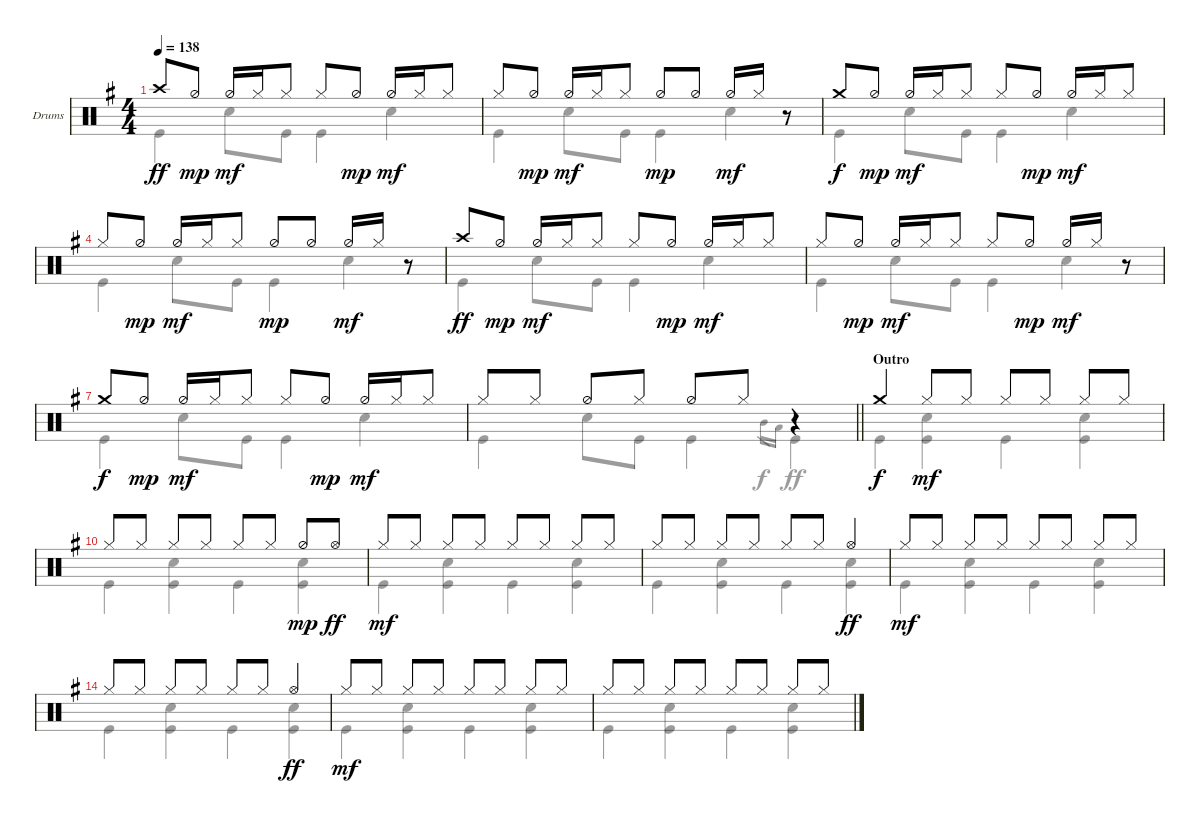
\defaultSystemsLayout 4
\bracketExtendMode groupsimilarinstruments
\useSystemSignSeparator
\multiBarRest
\multiTrackTrackNamePolicy allsystems
\firstSystemTrackNameMode fullname
\firstSystemTrackNameOrientation horizontal
\otherSystemsTrackNameOrientation horizontal
\defaultBarNumberDisplay FirstOfSystem
\track ("Drums" "Dr.") {multiBarRest instrument percussion}
\staff {score}
\articulation defaults
\voice
\ts (4 4)
\tempo 138
\clef neutral
\ks g "Crash high (hit)".8{dy ff} "Hi-Hat (half)".8{dy mp} "Hi-Hat (half)".16{dy mf} "Hi-Hat (closed)".16 "Hi-Hat (closed)".8 "Hi-Hat (closed)".8 "Hi-Hat (half)".8{dy mp} "Hi-Hat (half)".16{dy mf} "Hi-Hat (closed)".16 "Hi-Hat (closed)".8
|
"Hi-Hat (closed)".8 "Hi-Hat (half)".8{dy mp} "Hi-Hat (half)".16{dy mf} "Hi-Hat (closed)".16 "Hi-Hat (closed)".8 "Hi-Hat (half)".8{dy mp} "Hi-Hat (half)".8 "Hi-Hat (half)".16{dy mf} "Hi-Hat (closed)".16 r.8 |
"Crash medium (hit)".8{dy f} "Hi-Hat (half)".8{dy mp} "Hi-Hat (half)".16{dy mf} "Hi-Hat (closed)".16 "Hi-Hat (closed)".8 "Hi-Hat (closed)".8 "Hi-Hat (half)".8{dy mp} "Hi-Hat (half)".16{dy mf} "Hi-Hat (closed)".16 "Hi-Hat (closed)".8 |
"Hi-Hat (closed)".8 "Hi-Hat (half)".8{dy mp} "Hi-Hat (half)".16{dy mf} "Hi-Hat (closed)".16 "Hi-Hat (closed)".8 "Hi-Hat (half)".8{dy mp} "Hi-Hat (half)".8 "Hi-Hat (half)".16{dy mf} "Hi-Hat (closed)".16 r.8 |
"Crash high (hit)".8{dy ff} "Hi-Hat (half)".8{dy mp} "Hi-Hat (half)".16{dy mf} "Hi-Hat (closed)".16 "Hi-Hat (closed)".8 "Hi-Hat (closed)".8 "Hi-Hat (half)".8{dy mp} "Hi-Hat (half)".16{dy mf} "Hi-Hat (closed)".16 "Hi-Hat (closed)".8 |
"Hi-Hat (closed)".8 "Hi-Hat (half)".8{dy mp} "Hi-Hat (half)".16{dy mf} "Hi-Hat (closed)".16 "Hi-Hat (closed)".8 "Hi-Hat (closed)".8 "Hi-Hat (half)".8{dy mp} "Hi-Hat (half)".16{dy mf} "Hi-Hat (closed)".16 r.8 |
"Crash medium (hit)".8{dy f} "Hi-Hat (half)".8{dy mp} "Hi-Hat (half)".16{dy mf} "Hi-Hat (closed)".16 "Hi-Hat (closed)".8 "Hi-Hat (closed)".8 "Hi-Hat (half)".8{dy mp} "Hi-Hat (half)".16{dy mf} "Hi-Hat (closed)".16 "Hi-Hat (closed)".8 |
\barLineRight lightlight "Hi-Hat (closed)".8 "Hi-Hat (closed)".8 "Hi-Hat (half)".8 "Hi-Hat (closed)".8 "Hi-Hat (half)".8 "Hi-Hat (closed)".8
r.4 |
\section ("" "Outro")
"Crash medium (hit)".4{dy f} "Hi-Hat (closed)".8{dy mf} "Hi-Hat (closed)".8 "Hi-Hat (closed)".8 "Hi-Hat (closed)".8 "Hi-Hat (closed)".8 "Hi-Hat (closed)".8 |
"Hi-Hat (closed)".8 "Hi-Hat (closed)".8 "Hi-Hat (closed)".8 "Hi-Hat (closed)".8 "Hi-Hat (closed)".8 "Hi-Hat (closed)".8 "Hi-Hat (half)".8{dy mp} "Hi-Hat (open)".8{dy ff} |
"Hi-Hat (closed)".8{dy mf} "Hi-Hat (closed)".8 "Hi-Hat (closed)".8 "Hi-Hat (closed)".8 "Hi-Hat (closed)".8 "Hi-Hat (closed)".8 "Hi-Hat (closed)".8 "Hi-Hat (closed)".8 |
"Hi-Hat (closed)".8 "Hi-Hat (closed)".8 "Hi-Hat (closed)".8 "Hi-Hat (closed)".8 "Hi-Hat (closed)".8 "Hi-Hat (closed)".8 "Hi-Hat (open)".4{dy ff} |
"Hi-Hat (closed)".8{dy mf} "Hi-Hat (closed)".8 "Hi-Hat (closed)".8 "Hi-Hat (closed)".8 "Hi-Hat (closed)".8 "Hi-Hat (closed)".8 "Hi-Hat (closed)".8 "Hi-Hat (closed)".8 |
"Hi-Hat (closed)".8 "Hi-Hat (closed)".8 "Hi-Hat (closed)".8 "Hi-Hat (closed)".8 "Hi-Hat (closed)".8 "Hi-Hat (closed)".8 "Hi-Hat (open)".4{dy ff} |
"Hi-Hat (closed)".8{dy mf} "Hi-Hat (closed)".8 "Hi-Hat (closed)".8 "Hi-Hat (closed)".8 "Hi-Hat (closed)".8 "Hi-Hat (closed)".8 "Hi-Hat (closed)".8 "Hi-Hat (closed)".8 |
"Hi-Hat (closed)".8 "Hi-Hat (closed)".8 "Hi-Hat (closed)".8 "Hi-Hat (closed)".8 "Hi-Hat (closed)".8 "Hi-Hat (closed)".8 "Hi-Hat (closed)".8 "Hi-Hat (closed)".8
\voice
\clef neutral
\ottava regular
\simile none
\ks g "Kick (hit)".4{dy ff} "Snare (hit) 2".8 "Kick (hit)".8 "Kick (hit)".4 "Snare (hit) 2".4
|
"Kick (hit)".4 "Snare (hit) 2".8 "Kick (hit)".8 "Kick (hit)".4 "Snare (hit) 2".4 |
"Kick (hit)".4 "Snare (hit) 2".8 "Kick (hit)".8 "Kick (hit)".4 "Snare (hit) 2".4 |
"Kick (hit)".4 "Snare (hit) 2".8 "Kick (hit)".8 "Kick (hit)".4 "Snare (hit) 2".4 |
"Kick (hit)".4 "Snare (hit) 2".8 "Kick (hit)".8 "Kick (hit)".4 "Snare (hit) 2".4 |
"Kick (hit)".4 "Snare (hit) 2".8 "Kick (hit)".8 "Kick (hit)".4 "Snare (hit) 2".4 |
"Kick (hit)".4 "Snare (hit) 2".8 "Kick (hit)".8 "Kick (hit)".4 "Snare (hit) 2".4 |
\barLineRight lightlight "Kick (hit)".4 "Snare (hit) 2".8 "Kick (hit)".8 "Kick (hit)".4 "Mid Tom (hit)".16{gr dy f} "Low Tom (hit)".16{gr} "Kick (hit)".4{dy ff}
|
"Kick (hit)".4{dy f} ("Kick (hit)" "Snare (hit) 2").4 "Kick (hit)".4 ("Kick (hit)" "Snare (hit) 2").4 |
"Kick (hit)".4 ("Kick (hit)" "Snare (hit) 2").4 "Kick (hit)".4 ("Kick (hit)" "Snare (hit) 2").4 |
"Kick (hit)".4 ("Kick (hit)" "Snare (hit) 2").4 "Kick (hit)".4 ("Kick (hit)" "Snare (hit) 2").4 |
"Kick (hit)".4 ("Kick (hit)" "Snare (hit) 2").4 "Kick (hit)".4 ("Kick (hit)" "Snare (hit) 2").4 |
"Kick (hit)".4 ("Kick (hit)" "Snare (hit) 2").4 "Kick (hit)".4 ("Kick (hit)" "Snare (hit) 2").4 |
"Kick (hit)".4 ("Kick (hit)" "Snare (hit) 2").4 "Kick (hit)".4 ("Kick (hit)" "Snare (hit) 2").4 |
"Kick (hit)".4 ("Kick (hit)" "Snare (hit) 2").4 "Kick (hit)".4 ("Kick (hit)" "Snare (hit) 2").4 |
"Kick (hit)".4 ("Kick (hit)" "Snare (hit) 2").4 "Kick (hit)".4 ("Kick (hit)" "Snare (hit) 2").4
